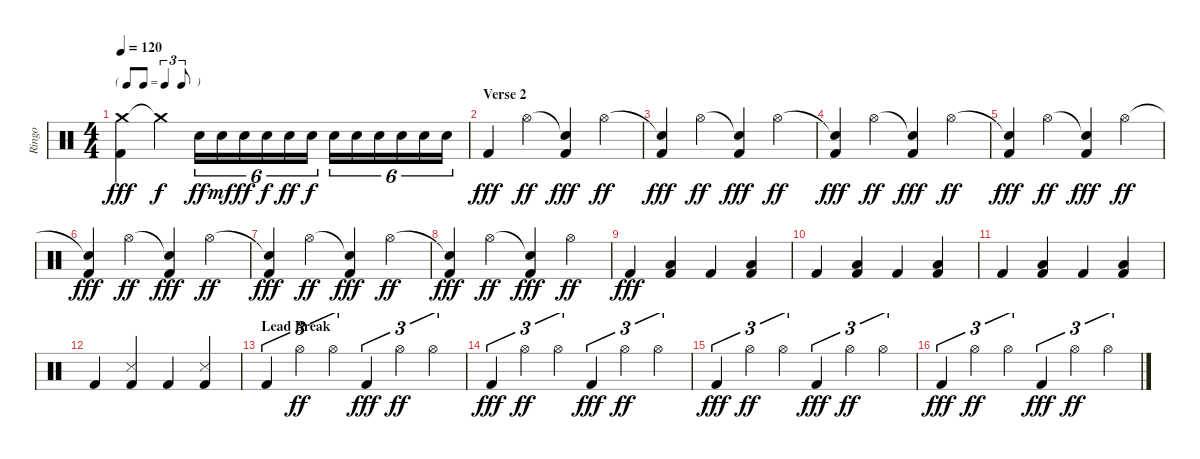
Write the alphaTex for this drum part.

\track ("Ringo" "Ringo") {instrument percussion}
\staff {score}
\articulation defaults
\ts (4 4)
\tf triplet8th
\tempo 120
\clef neutral
\ks c
("Crash medium (hit)" "Kick (hit) 2").4{dy fff} "Crash medium (hit)"{t}.4{dy f} "Snare (hit) 2".16{tu (6 4) dy ff} "Snare (hit) 2".16{tu (6 4) dy mf} "Snare (hit) 2".16{tu (6 4) dy ff} "Snare (hit) 2".16{tu (6 4) dy f} "Snare (hit) 2".16{tu (6 4) dy ff} "Snare (hit) 2".16{tu (6 4) dy f} "Snare (hit) 2".16{tu (6 4)} "Snare (hit) 2".16{tu (6 4)} "Snare (hit) 2".16{tu (6 4)} "Snare (hit) 2".16{tu (6 4)} "Snare (hit) 2".16{tu (6 4)} "Snare (hit) 2".16{tu (6 4)} |
\section ("" "Verse 2")
"Kick (hit) 2".4{dy fff} "Hi-Hat (open)".4{dy ff} ("Snare (hit)"{t} "Kick (hit) 2").4{dy fff} "Hi-Hat (open)".4{dy ff} |
("Snare (hit)"{t} "Kick (hit) 2").4{dy fff} "Hi-Hat (open)".4{dy ff} ("Snare (hit)"{t} "Kick (hit) 2").4{dy fff} "Hi-Hat (open)".4{dy ff} |
("Snare (hit)"{t} "Kick (hit) 2").4{dy fff} "Hi-Hat (open)".4{dy ff} ("Snare (hit)"{t} "Kick (hit) 2").4{dy fff} "Hi-Hat (open)".4{dy ff} |
("Snare (hit)"{t} "Kick (hit) 2").4{dy fff} "Hi-Hat (open)".4{dy ff} ("Snare (hit)"{t} "Kick (hit) 2").4{dy fff} "Hi-Hat (open)".4{dy ff} |
("Snare (hit)"{t} "Kick (hit) 2").4{dy fff} "Hi-Hat (open)".4{dy ff} ("Snare (hit)"{t} "Kick (hit) 2").4{dy fff} "Hi-Hat (open)".4{dy ff} |
("Snare (hit)"{t} "Kick (hit) 2").4{dy fff} "Hi-Hat (open)".4{dy ff} ("Snare (hit)"{t} "Kick (hit) 2").4{dy fff} "Hi-Hat (open)".4{dy ff} |
("Snare (hit)"{t} "Kick (hit) 2").4{dy fff} "Hi-Hat (open)".4{dy ff} ("Snare (hit)"{t} "Kick (hit) 2").4{dy fff} "Hi-Hat (open)".4{dy ff} |
"Kick (hit) 2".4{dy fff} ("Low Tom (hit)" "Kick (hit) 2").4 "Kick (hit) 2".4 ("Low Tom (hit)" "Kick (hit) 2").4 |
"Kick (hit) 2".4 ("Low Tom (hit)" "Kick (hit) 2").4 "Kick (hit) 2".4 ("Low Tom (hit)" "Kick (hit) 2").4 |
"Kick (hit) 2".4 ("Low Tom (hit)" "Kick (hit) 2").4 "Kick (hit) 2".4 ("Low Tom (hit)" "Kick (hit) 2").4 |
"Kick (hit) 2".4 ("Snare (side stick) 3" "Kick (hit) 2").4 "Kick (hit) 2".4 ("Snare (side stick) 3" "Kick (hit) 2").4 |
\section ("" "Lead Break")
"Kick (hit) 2".4{tu (3 2)} "Hi-Hat (open)".4{tu (3 2) dy ff} "Hi-Hat (open)".4{tu (3 2)} "Kick (hit) 2".4{tu (3 2) dy fff} "Hi-Hat (open)".4{tu (3 2) dy ff} "Hi-Hat (open)".4{tu (3 2)} |
"Kick (hit) 2".4{tu (3 2) dy fff} "Hi-Hat (open)".4{tu (3 2) dy ff} "Hi-Hat (open)".4{tu (3 2)} "Kick (hit) 2".4{tu (3 2) dy fff} "Hi-Hat (open)".4{tu (3 2) dy ff} "Hi-Hat (open)".4{tu (3 2)} |
"Kick (hit) 2".4{tu (3 2) dy fff} "Hi-Hat (open)".4{tu (3 2) dy ff} "Hi-Hat (open)".4{tu (3 2)} "Kick (hit) 2".4{tu (3 2) dy fff} "Hi-Hat (open)".4{tu (3 2) dy ff} "Hi-Hat (open)".4{tu (3 2)} |
"Kick (hit) 2".4{tu (3 2) dy fff} "Hi-Hat (open)".4{tu (3 2) dy ff} "Hi-Hat (open)".4{tu (3 2)} "Kick (hit) 2".4{tu (3 2) dy fff} "Hi-Hat (open)".4{tu (3 2) dy ff} "Hi-Hat (open)".4{tu (3 2)}
